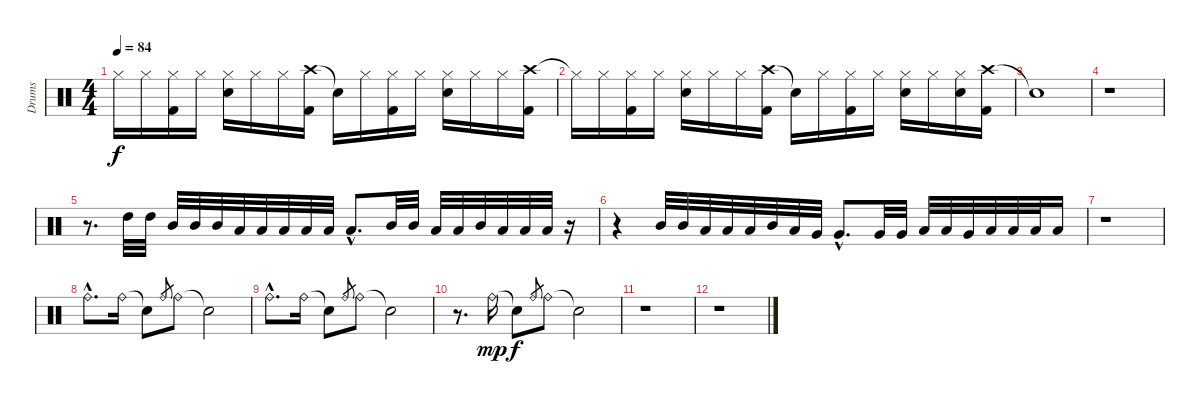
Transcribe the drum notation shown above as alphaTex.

\track ("Drums" "Drums") {instrument percussion}
\staff {score}
\articulation defaults
\ts (4 4)
\tempo 84
\clef neutral
\ks c "Hi-Hat (closed)"{t}.16{dy f} "Hi-Hat (closed)".16
("Hi-Hat (closed)" "Kick (hit) 2").16 "Hi-Hat (closed)".16 ("Hi-Hat (closed)" "Snare (hit) 2").16 "Hi-Hat (closed)".16 "Hi-Hat (closed)".16 ("Crash high (hit)" "Kick (hit) 2").16 "Snare (hit) 2"{t}.16 "Hi-Hat (closed)".16 ("Hi-Hat (closed)" "Kick (hit) 2").16 "Hi-Hat (closed)".16 ("Hi-Hat (closed)" "Snare (hit) 2").16 "Hi-Hat (closed)".16 "Hi-Hat (closed)".16 ("Crash high (hit)" "Kick (hit) 2").16 |
"Hi-Hat (closed)"{t}.16 "Hi-Hat (closed)".16 ("Hi-Hat (closed)" "Kick (hit) 2").16 "Hi-Hat (closed)".16 ("Hi-Hat (closed)" "Snare (hit) 2").16 "Hi-Hat (closed)".16 "Hi-Hat (closed)".16 ("Crash high (hit)" "Kick (hit) 2").16 "Snare (hit) 2"{t}.16 "Hi-Hat (closed)".16 ("Hi-Hat (closed)" "Kick (hit) 2").16 "Hi-Hat (closed)".16 ("Hi-Hat (closed)" "Snare (hit) 2").16 "Hi-Hat (closed)".16 ("Hi-Hat (closed)" "Snare (hit) 2").16 ("Crash high (hit)" "Kick (hit) 2").16 |
"Snare (hit)"{t}.1 |
r.1 |
r.8{d} "High Tom (hit)".32 "High Tom (hit)".32 "Mid Tom (hit)".32 "Mid Tom (hit)".32 "Mid Tom (hit)".32 "Low Tom (hit)".32 "Low Tom (hit)".32 "Low Tom (hit)".32 "Low Tom (hit)".32 "Low Tom (hit)".32 "Low Tom (hit)"{hac}.8{d} "Mid Tom (hit)".32 "Mid Tom (hit)".32 "Low Tom (hit)".32 "Low Tom (hit)".32 "Mid Tom (hit)".32 "Low Tom (hit)".32 "Low Tom (hit)".32 "Low Tom (hit)".32 r.16 |
r.4 "Mid Tom (hit)".32 "Mid Tom (hit)".32 "Low Tom (hit)".32 "Low Tom (hit)".32 "Low Tom (hit)".32 "Mid Tom (hit)".32 "Low Tom (hit)".32 "Very Low Tom (hit)".32 "Very Low Tom (hit)"{hac}.8{d} "Very Low Tom (hit)".32 "Very Low Tom (hit)".32 "Low Floor Tom (hit)".32 "Low Floor Tom (hit)".32 "Very Low Tom (hit)".32 "Low Floor Tom (hit)".32 "Low Floor Tom (hit)".32 "Low Floor Tom (hit)".32 "Low Floor Tom (hit)".16 |
r.1 |
"Ride (bell)"{hac}.8{d} "Ride (bell)".16 "Snare (hit)"{t}.8 "Ride (bell)".8{gr} "Ride (bell)".8 "Snare (hit)"{t}.2 |
"Ride (bell)"{hac}.8{d} "Ride (bell)".16 "Snare (hit)"{t}.8 "Ride (bell)".8{gr} "Ride (bell)".8 "Snare (hit)"{t}.2 |
r.8{d} "Ride (bell)".16{dy mp} "Snare (hit)"{t}.8{dy f} "Ride (bell)".8{gr} "Ride (bell)".8 "Snare (hit)"{t}.2 |
r.1 |
r.1
